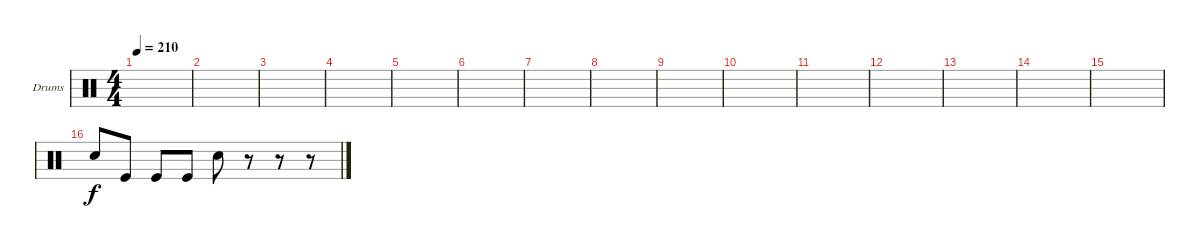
\bracketExtendMode groupsimilarinstruments
\firstSystemTrackNameOrientation horizontal
\otherSystemsTrackNameOrientation horizontal
\track ("Drumkit" "Drums") {instrument percussion}
\staff {score}
\articulation defaults
\ts (4 4)
\tempo 210
\clef neutral
\ks c
|
|
|
|
|
|
|
|
|
|
|
|
|
|
|
"Snare (hit) 2".8 "Kick (hit)".8 "Kick (hit)".8 "Kick (hit)".8 "Snare (hit) 2".8 r.8 r.8 r.8
